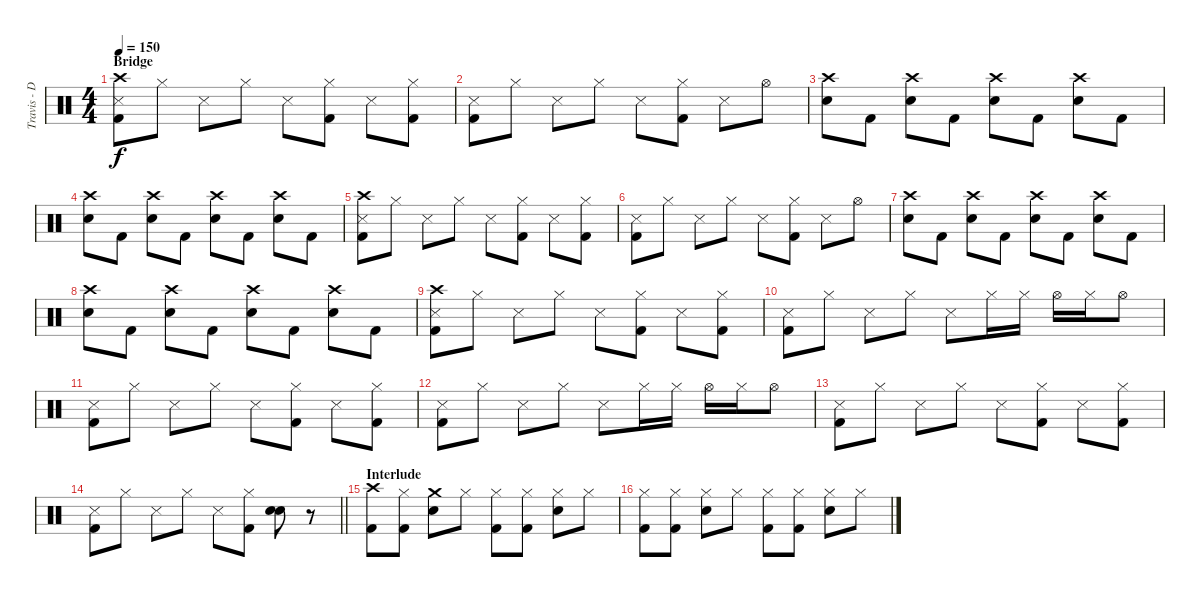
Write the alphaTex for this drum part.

\track ("Travis - Drums" "Travis - D") {instrument percussion}
\staff {score}
\articulation defaults
\ts (4 4)
\section ("" "Bridge")
\tempo 150
\clef neutral
\ks c
("Crash high (hit)" "Snare (side stick) 3" "Kick (hit) 2").8{dy f} "Hi-Hat (closed)".8 "Snare (side stick) 3".8 "Hi-Hat (closed)".8 "Snare (side stick) 3".8 ("Hi-Hat (closed)" "Kick (hit) 2").8 "Snare (side stick) 3".8 ("Hi-Hat (closed)" "Kick (hit) 2").8 |
("Snare (side stick) 3" "Kick (hit) 2").8 "Hi-Hat (closed)".8 "Snare (side stick) 3".8 "Hi-Hat (closed)".8 "Snare (side stick) 3".8 ("Hi-Hat (closed)" "Kick (hit) 2").8 "Snare (side stick) 3".8 "Hi-Hat (open)".8 |
("Crash high (hit)" "Electric Snare (hit)").8 "Kick (hit) 2".8 ("Crash high (hit)" "Electric Snare (hit)").8 "Kick (hit) 2".8 ("Crash high (hit)" "Electric Snare (hit)").8 "Kick (hit) 2".8 ("Crash high (hit)" "Electric Snare (hit)").8 "Kick (hit) 2".8 |
("Crash high (hit)" "Electric Snare (hit)").8 "Kick (hit) 2".8 ("Crash high (hit)" "Electric Snare (hit)").8 "Kick (hit) 2".8 ("Crash high (hit)" "Electric Snare (hit)").8 "Kick (hit) 2".8 ("Crash high (hit)" "Electric Snare (hit)").8 "Kick (hit) 2".8 |
("Crash high (hit)" "Snare (side stick) 3" "Kick (hit) 2").8 "Hi-Hat (closed)".8 "Snare (side stick) 3".8 "Hi-Hat (closed)".8 "Snare (side stick) 3".8 ("Hi-Hat (closed)" "Kick (hit) 2").8 "Snare (side stick) 3".8 ("Hi-Hat (closed)" "Kick (hit) 2").8 |
("Snare (side stick) 3" "Kick (hit) 2").8 "Hi-Hat (closed)".8 "Snare (side stick) 3".8 "Hi-Hat (closed)".8 "Snare (side stick) 3".8 ("Hi-Hat (closed)" "Kick (hit) 2").8 "Snare (side stick) 3".8 "Hi-Hat (open)".8 |
("Crash high (hit)" "Electric Snare (hit)").8 "Kick (hit) 2".8 ("Crash high (hit)" "Electric Snare (hit)").8 "Kick (hit) 2".8 ("Crash high (hit)" "Electric Snare (hit)").8 "Kick (hit) 2".8 ("Crash high (hit)" "Electric Snare (hit)").8 "Kick (hit) 2".8 |
("Crash high (hit)" "Electric Snare (hit)").8 "Kick (hit) 2".8 ("Crash high (hit)" "Electric Snare (hit)").8 "Kick (hit) 2".8 ("Crash high (hit)" "Electric Snare (hit)").8 "Kick (hit) 2".8 ("Crash high (hit)" "Electric Snare (hit)").8 "Kick (hit) 2".8 |
("Crash high (hit)" "Snare (side stick) 3" "Kick (hit) 2").8 "Hi-Hat (closed)".8 "Snare (side stick) 3".8 "Hi-Hat (closed)".8 "Snare (side stick) 3".8 ("Hi-Hat (closed)" "Kick (hit) 2").8 "Snare (side stick) 3".8 ("Hi-Hat (closed)" "Kick (hit) 2").8 |
("Snare (side stick) 3" "Kick (hit) 2").8 "Hi-Hat (closed)".8 "Snare (side stick) 3".8 "Hi-Hat (closed)".8 "Snare (side stick) 3".8 "Hi-Hat (closed)".16 "Hi-Hat (closed)".16 "Hi-Hat (open)".16 "Hi-Hat (closed)".16 "Hi-Hat (open)".8 |
("Snare (side stick) 3" "Kick (hit) 2").8 "Hi-Hat (closed)".8 "Snare (side stick) 3".8 "Hi-Hat (closed)".8 "Snare (side stick) 3".8 ("Hi-Hat (closed)" "Kick (hit) 2").8 "Snare (side stick) 3".8 ("Hi-Hat (closed)" "Kick (hit) 2").8 |
("Snare (side stick) 3" "Kick (hit) 2").8 "Hi-Hat (closed)".8 "Snare (side stick) 3".8 "Hi-Hat (closed)".8 "Snare (side stick) 3".8 "Hi-Hat (closed)".16 "Hi-Hat (closed)".16 "Hi-Hat (open)".16 "Hi-Hat (closed)".16 "Hi-Hat (open)".8 |
("Snare (side stick) 3" "Kick (hit) 2").8 "Hi-Hat (closed)".8 "Snare (side stick) 3".8 "Hi-Hat (closed)".8 "Snare (side stick) 3".8 ("Hi-Hat (closed)" "Kick (hit) 2").8 "Snare (side stick) 3".8 ("Hi-Hat (closed)" "Kick (hit) 2").8 |
\barLineRight lightlight
("Snare (side stick) 3" "Kick (hit) 2").8 "Hi-Hat (closed)".8 "Snare (side stick) 3".8 "Hi-Hat (closed)".8 "Snare (side stick) 3".8 ("Hi-Hat (closed)" "Kick (hit) 2").8 ("Electric Snare (hit)" "Electric Snare (hit)").8 r.8 |
\section ("" "Interlude")
("Crash high (hit)" "Kick (hit) 2").8 ("Hi-Hat (closed)" "Kick (hit) 2").8 ("Crash medium (hit)" "Electric Snare (hit)").8 "Hi-Hat (closed)".8 ("Hi-Hat (closed)" "Kick (hit) 2").8 ("Hi-Hat (closed)" "Kick (hit) 2").8 ("Hi-Hat (closed)" "Electric Snare (hit)").8 "Hi-Hat (closed)".8 |
("Hi-Hat (closed)" "Kick (hit) 2").8 ("Hi-Hat (closed)" "Kick (hit) 2").8 ("Hi-Hat (closed)" "Electric Snare (hit)").8 "Hi-Hat (closed)".8 ("Hi-Hat (closed)" "Kick (hit) 2").8 ("Hi-Hat (closed)" "Kick (hit) 2").8 ("Hi-Hat (closed)" "Electric Snare (hit)").8 "Hi-Hat (closed)".8
